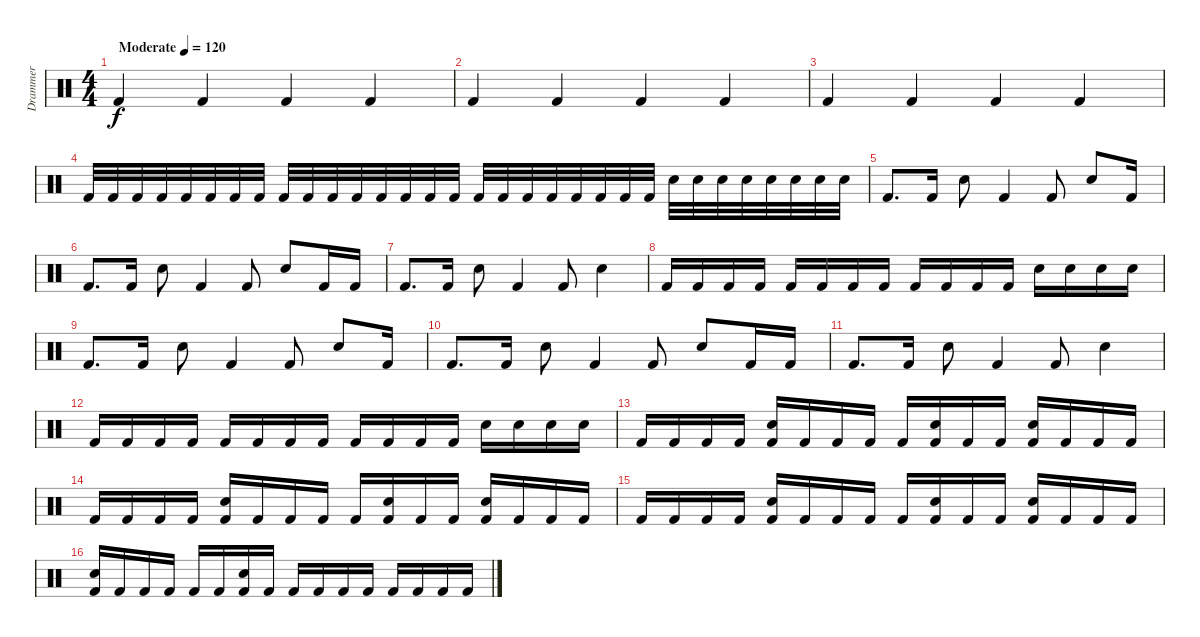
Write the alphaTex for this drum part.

\track ("Drammer" "Drammer") {instrument percussion}
\staff {score}
\articulation defaults
\ts (4 4)
\tempo (120 "Moderate")
\clef neutral
\ks c "Kick (hit) 2".4{dy f} "Kick (hit) 2".4 "Kick (hit) 2".4 "Kick (hit) 2".4
|
"Kick (hit) 2".4 "Kick (hit) 2".4 "Kick (hit) 2".4 "Kick (hit) 2".4 |
"Kick (hit) 2".4 "Kick (hit) 2".4 "Kick (hit) 2".4 "Kick (hit) 2".4 |
"Kick (hit) 2".32 "Kick (hit) 2".32 "Kick (hit) 2".32 "Kick (hit) 2".32 "Kick (hit) 2".32 "Kick (hit) 2".32 "Kick (hit) 2".32 "Kick (hit) 2".32 "Kick (hit) 2".32 "Kick (hit) 2".32 "Kick (hit) 2".32 "Kick (hit) 2".32 "Kick (hit) 2".32 "Kick (hit) 2".32 "Kick (hit) 2".32 "Kick (hit) 2".32 "Kick (hit) 2".32 "Kick (hit) 2".32 "Kick (hit) 2".32 "Kick (hit) 2".32 "Kick (hit) 2".32 "Kick (hit) 2".32 "Kick (hit) 2".32 "Kick (hit) 2".32 "Snare (hit) 2".32 "Snare (hit) 2".32 "Snare (hit) 2".32 "Snare (hit) 2".32 "Snare (hit) 2".32 "Snare (hit) 2".32 "Snare (hit) 2".32 "Snare (hit) 2".32 |
"Kick (hit) 2".8{d} "Kick (hit) 2".16 "Snare (hit) 2".8 "Kick (hit) 2".4 "Kick (hit) 2".8 "Snare (hit) 2".8 "Kick (hit) 2".16 |
"Kick (hit) 2".8{d} "Kick (hit) 2".16 "Snare (hit) 2".8 "Kick (hit) 2".4 "Kick (hit) 2".8 "Snare (hit) 2".8 "Kick (hit) 2".16 "Kick (hit) 2".16 |
"Kick (hit) 2".8{d} "Kick (hit) 2".16 "Snare (hit) 2".8 "Kick (hit) 2".4 "Kick (hit) 2".8 "Snare (hit) 2".4 |
"Kick (hit) 2".16 "Kick (hit) 2".16 "Kick (hit) 2".16 "Kick (hit) 2".16 "Kick (hit) 2".16 "Kick (hit) 2".16 "Kick (hit) 2".16 "Kick (hit) 2".16 "Kick (hit) 2".16 "Kick (hit) 2".16 "Kick (hit) 2".16 "Kick (hit) 2".16 "Snare (hit) 2".16 "Snare (hit) 2".16 "Snare (hit) 2".16 "Snare (hit) 2".16 |
"Kick (hit) 2".8{d} "Kick (hit) 2".16 "Snare (hit) 2".8 "Kick (hit) 2".4 "Kick (hit) 2".8 "Snare (hit) 2".8 "Kick (hit) 2".16 |
"Kick (hit) 2".8{d} "Kick (hit) 2".16 "Snare (hit) 2".8 "Kick (hit) 2".4 "Kick (hit) 2".8 "Snare (hit) 2".8 "Kick (hit) 2".16 "Kick (hit) 2".16 |
"Kick (hit) 2".8{d} "Kick (hit) 2".16 "Snare (hit) 2".8 "Kick (hit) 2".4 "Kick (hit) 2".8 "Snare (hit) 2".4 |
"Kick (hit) 2".16 "Kick (hit) 2".16 "Kick (hit) 2".16 "Kick (hit) 2".16 "Kick (hit) 2".16 "Kick (hit) 2".16 "Kick (hit) 2".16 "Kick (hit) 2".16 "Kick (hit) 2".16 "Kick (hit) 2".16 "Kick (hit) 2".16 "Kick (hit) 2".16 "Snare (hit) 2".16 "Snare (hit) 2".16 "Snare (hit) 2".16 "Snare (hit) 2".16 |
"Kick (hit) 2".16 "Kick (hit) 2".16 "Kick (hit) 2".16 "Kick (hit) 2".16 ("Snare (hit) 2" "Kick (hit) 2").16 "Kick (hit) 2".16 "Kick (hit) 2".16 "Kick (hit) 2".16 "Kick (hit) 2".16 ("Snare (hit) 2" "Kick (hit) 2").16 "Kick (hit) 2".16 "Kick (hit) 2".16 ("Snare (hit) 2" "Kick (hit) 2").16 "Kick (hit) 2".16 "Kick (hit) 2".16 "Kick (hit) 2".16 |
"Kick (hit) 2".16 "Kick (hit) 2".16 "Kick (hit) 2".16 "Kick (hit) 2".16 ("Snare (hit) 2" "Kick (hit) 2").16 "Kick (hit) 2".16 "Kick (hit) 2".16 "Kick (hit) 2".16 "Kick (hit) 2".16 ("Snare (hit) 2" "Kick (hit) 2").16 "Kick (hit) 2".16 "Kick (hit) 2".16 ("Snare (hit) 2" "Kick (hit) 2").16 "Kick (hit) 2".16 "Kick (hit) 2".16 "Kick (hit) 2".16 |
"Kick (hit) 2".16 "Kick (hit) 2".16 "Kick (hit) 2".16 "Kick (hit) 2".16 ("Snare (hit) 2" "Kick (hit) 2").16 "Kick (hit) 2".16 "Kick (hit) 2".16 "Kick (hit) 2".16 "Kick (hit) 2".16 ("Snare (hit) 2" "Kick (hit) 2").16 "Kick (hit) 2".16 "Kick (hit) 2".16 ("Snare (hit) 2" "Kick (hit) 2").16 "Kick (hit) 2".16 "Kick (hit) 2".16 "Kick (hit) 2".16 |
("Snare (hit) 2" "Kick (hit) 2").16 "Kick (hit) 2".16 "Kick (hit) 2".16 "Kick (hit) 2".16 "Kick (hit) 2".16 "Kick (hit) 2".16 ("Snare (hit) 2" "Kick (hit) 2").16 "Kick (hit) 2".16 "Kick (hit) 2".16 "Kick (hit) 2".16 "Kick (hit) 2".16 "Kick (hit) 2".16 "Kick (hit) 2".16 "Kick (hit) 2".16 "Kick (hit) 2".16 "Kick (hit) 2".16
